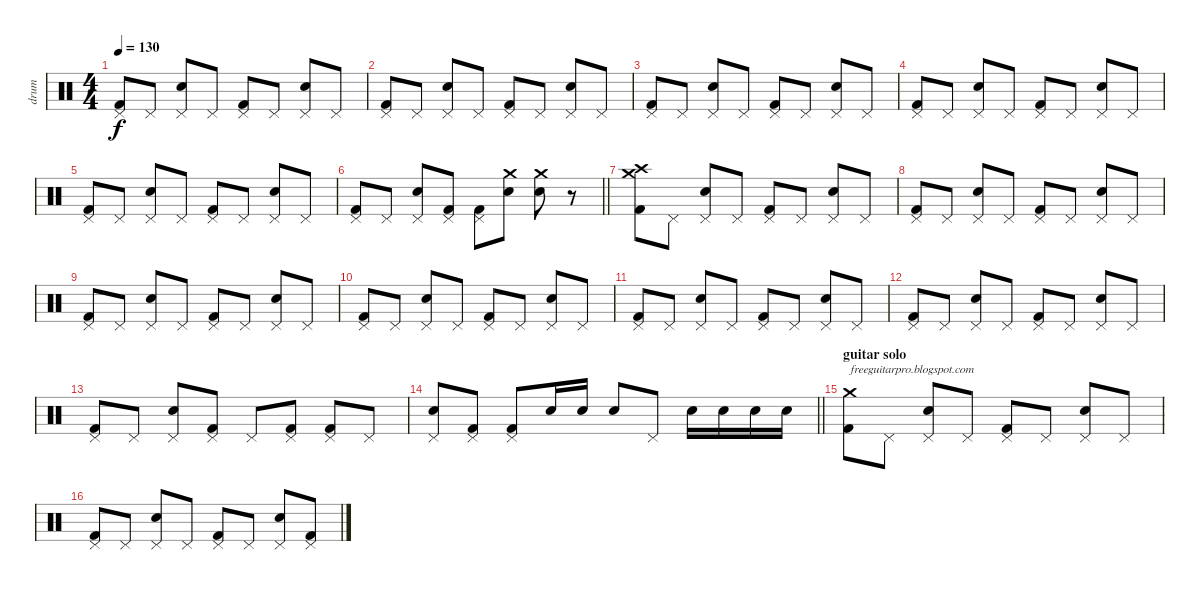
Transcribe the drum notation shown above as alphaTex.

\track ("drum" "drum") {instrument percussion}
\staff {score}
\articulation defaults
\ts (4 4)
\tempo 130
\clef neutral
\ks c
("Pedal Hi-Hat (hit)" "Kick (hit) 2").8{dy f} "Pedal Hi-Hat (hit)".8 ("Pedal Hi-Hat (hit)" "Electric Snare (hit)").8 "Pedal Hi-Hat (hit)".8 ("Pedal Hi-Hat (hit)" "Kick (hit) 2").8 "Pedal Hi-Hat (hit)".8 ("Pedal Hi-Hat (hit)" "Electric Snare (hit)").8 "Pedal Hi-Hat (hit)".8 |
("Pedal Hi-Hat (hit)" "Kick (hit) 2").8 "Pedal Hi-Hat (hit)".8 ("Pedal Hi-Hat (hit)" "Electric Snare (hit)").8 "Pedal Hi-Hat (hit)".8 ("Pedal Hi-Hat (hit)" "Kick (hit) 2").8 "Pedal Hi-Hat (hit)".8 ("Pedal Hi-Hat (hit)" "Electric Snare (hit)").8 "Pedal Hi-Hat (hit)".8 |
("Pedal Hi-Hat (hit)" "Kick (hit) 2").8 "Pedal Hi-Hat (hit)".8 ("Pedal Hi-Hat (hit)" "Electric Snare (hit)").8 "Pedal Hi-Hat (hit)".8 ("Pedal Hi-Hat (hit)" "Kick (hit) 2").8 "Pedal Hi-Hat (hit)".8 ("Pedal Hi-Hat (hit)" "Electric Snare (hit)").8 "Pedal Hi-Hat (hit)".8 |
("Pedal Hi-Hat (hit)" "Kick (hit) 2").8 "Pedal Hi-Hat (hit)".8 ("Pedal Hi-Hat (hit)" "Electric Snare (hit)").8 "Pedal Hi-Hat (hit)".8 ("Pedal Hi-Hat (hit)" "Kick (hit) 2").8 "Pedal Hi-Hat (hit)".8 ("Pedal Hi-Hat (hit)" "Electric Snare (hit)").8 "Pedal Hi-Hat (hit)".8 |
("Pedal Hi-Hat (hit)" "Kick (hit) 2").8 "Pedal Hi-Hat (hit)".8 ("Pedal Hi-Hat (hit)" "Electric Snare (hit)").8 "Pedal Hi-Hat (hit)".8 ("Pedal Hi-Hat (hit)" "Kick (hit) 2").8 "Pedal Hi-Hat (hit)".8 ("Pedal Hi-Hat (hit)" "Electric Snare (hit)").8 "Pedal Hi-Hat (hit)".8 |
\barLineRight lightlight
("Pedal Hi-Hat (hit)" "Kick (hit) 2").8 "Pedal Hi-Hat (hit)".8 ("Pedal Hi-Hat (hit)" "Electric Snare (hit)").8 ("Pedal Hi-Hat (hit)" "Kick (hit) 2").8 ("Pedal Hi-Hat (hit)" "Kick (hit) 2").8 ("Crash medium (hit)" "Electric Snare (hit)").8 ("Crash medium (hit)" "Electric Snare (hit)").8 r.8 |
("Crash medium (hit)" "Crash high (hit)" "Kick (hit) 2").8 "Pedal Hi-Hat (hit)".8 ("Pedal Hi-Hat (hit)" "Electric Snare (hit)").8 "Pedal Hi-Hat (hit)".8 ("Pedal Hi-Hat (hit)" "Kick (hit) 2").8 "Pedal Hi-Hat (hit)".8 ("Pedal Hi-Hat (hit)" "Electric Snare (hit)").8 "Pedal Hi-Hat (hit)".8 |
("Pedal Hi-Hat (hit)" "Kick (hit) 2").8 "Pedal Hi-Hat (hit)".8 ("Pedal Hi-Hat (hit)" "Electric Snare (hit)").8 "Pedal Hi-Hat (hit)".8 ("Pedal Hi-Hat (hit)" "Kick (hit) 2").8 "Pedal Hi-Hat (hit)".8 ("Pedal Hi-Hat (hit)" "Electric Snare (hit)").8 "Pedal Hi-Hat (hit)".8 |
("Pedal Hi-Hat (hit)" "Kick (hit) 2").8 "Pedal Hi-Hat (hit)".8 ("Pedal Hi-Hat (hit)" "Electric Snare (hit)").8 "Pedal Hi-Hat (hit)".8 ("Pedal Hi-Hat (hit)" "Kick (hit) 2").8 "Pedal Hi-Hat (hit)".8 ("Pedal Hi-Hat (hit)" "Electric Snare (hit)").8 "Pedal Hi-Hat (hit)".8 |
("Pedal Hi-Hat (hit)" "Kick (hit) 2").8 "Pedal Hi-Hat (hit)".8 ("Pedal Hi-Hat (hit)" "Electric Snare (hit)").8 "Pedal Hi-Hat (hit)".8 ("Pedal Hi-Hat (hit)" "Kick (hit) 2").8 "Pedal Hi-Hat (hit)".8 ("Pedal Hi-Hat (hit)" "Electric Snare (hit)").8 "Pedal Hi-Hat (hit)".8 |
("Pedal Hi-Hat (hit)" "Kick (hit) 2").8 "Pedal Hi-Hat (hit)".8 ("Pedal Hi-Hat (hit)" "Electric Snare (hit)").8 "Pedal Hi-Hat (hit)".8 ("Pedal Hi-Hat (hit)" "Kick (hit) 2").8 "Pedal Hi-Hat (hit)".8 ("Pedal Hi-Hat (hit)" "Electric Snare (hit)").8 "Pedal Hi-Hat (hit)".8 |
("Pedal Hi-Hat (hit)" "Kick (hit) 2").8 "Pedal Hi-Hat (hit)".8 ("Pedal Hi-Hat (hit)" "Electric Snare (hit)").8 "Pedal Hi-Hat (hit)".8 ("Pedal Hi-Hat (hit)" "Kick (hit) 2").8 "Pedal Hi-Hat (hit)".8 ("Pedal Hi-Hat (hit)" "Electric Snare (hit)").8 "Pedal Hi-Hat (hit)".8 |
("Pedal Hi-Hat (hit)" "Kick (hit) 2").8 "Pedal Hi-Hat (hit)".8 ("Pedal Hi-Hat (hit)" "Electric Snare (hit)").8 ("Pedal Hi-Hat (hit)" "Kick (hit) 2").8 "Pedal Hi-Hat (hit)".8 ("Pedal Hi-Hat (hit)" "Kick (hit) 2").8 ("Pedal Hi-Hat (hit)" "Kick (hit) 2").8 "Pedal Hi-Hat (hit)".8 |
\barLineRight lightlight
("Pedal Hi-Hat (hit)" "Electric Snare (hit)").8 ("Pedal Hi-Hat (hit)" "Kick (hit) 2").8 ("Pedal Hi-Hat (hit)" "Kick (hit) 2").8 "Electric Snare (hit)".16 "Electric Snare (hit)".16 "Electric Snare (hit)".8 "Pedal Hi-Hat (hit)".8 "Electric Snare (hit)".16 "Electric Snare (hit)".16 "Electric Snare (hit)".16 "Electric Snare (hit)".16 |
\section ("" "guitar solo")
("Crash medium (hit)" "Kick (hit) 2").8{txt "freeguitarpro.blogspot.com"} "Pedal Hi-Hat (hit)".8 ("Pedal Hi-Hat (hit)" "Electric Snare (hit)").8 "Pedal Hi-Hat (hit)".8 ("Pedal Hi-Hat (hit)" "Kick (hit) 2").8 "Pedal Hi-Hat (hit)".8 ("Pedal Hi-Hat (hit)" "Electric Snare (hit)").8 "Pedal Hi-Hat (hit)".8 |
("Pedal Hi-Hat (hit)" "Kick (hit) 2").8 "Pedal Hi-Hat (hit)".8 ("Pedal Hi-Hat (hit)" "Electric Snare (hit)").8 "Pedal Hi-Hat (hit)".8 ("Pedal Hi-Hat (hit)" "Kick (hit) 2").8 "Pedal Hi-Hat (hit)".8 ("Pedal Hi-Hat (hit)" "Electric Snare (hit)").8 ("Pedal Hi-Hat (hit)" "Kick (hit) 2").8
